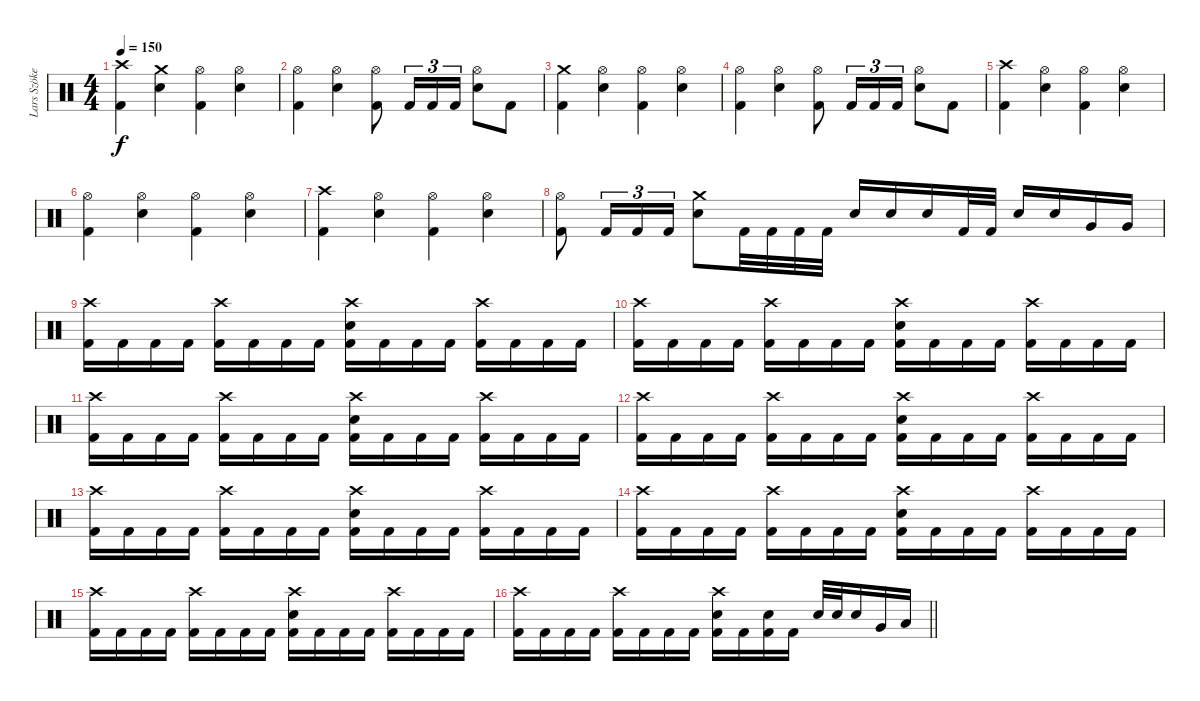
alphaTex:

\track ("Lars Szöke" "Lars Szöke") {instrument percussion}
\staff {score}
\articulation defaults
\ts (4 4)
\tempo 150
\clef neutral
\ks c
("Crash high (hit)" "Kick (hit) 2").4{dy f} ("Crash medium (hit)" "Snare (hit) 2").4 ("Hi-Hat (open)" "Kick (hit) 2").4 ("Hi-Hat (open)" "Snare (hit) 2").4 |
("Hi-Hat (open)" "Kick (hit) 2").4 ("Hi-Hat (open)" "Snare (hit) 2").4 ("Hi-Hat (open)" "Kick (hit) 2").8 "Kick (hit) 2".16{tu (3 2)} "Kick (hit) 2".16{tu (3 2)} "Kick (hit) 2".16{tu (3 2)} ("Hi-Hat (open)" "Snare (hit) 2").8 "Kick (hit) 2".8 |
("Crash medium (hit)" "Kick (hit) 2").4 ("Hi-Hat (open)" "Snare (hit) 2").4 ("Hi-Hat (open)" "Kick (hit) 2").4 ("Hi-Hat (open)" "Snare (hit) 2").4 |
("Hi-Hat (open)" "Kick (hit) 2").4 ("Hi-Hat (open)" "Snare (hit) 2").4 ("Hi-Hat (open)" "Kick (hit) 2").8 "Kick (hit) 2".16{tu (3 2)} "Kick (hit) 2".16{tu (3 2)} "Kick (hit) 2".16{tu (3 2)} ("Hi-Hat (open)" "Snare (hit) 2").8 "Kick (hit) 2".8 |
("Crash high (hit)" "Kick (hit) 2").4 ("Hi-Hat (open)" "Snare (hit) 2").4 ("Hi-Hat (open)" "Kick (hit) 2").4 ("Hi-Hat (open)" "Snare (hit) 2").4 |
("Hi-Hat (open)" "Kick (hit) 2").4 ("Hi-Hat (open)" "Snare (hit) 2").4 ("Hi-Hat (open)" "Kick (hit) 2").4 ("Hi-Hat (open)" "Snare (hit) 2").4 |
("Crash high (hit)" "Kick (hit) 2").4 ("Hi-Hat (open)" "Snare (hit) 2").4 ("Hi-Hat (open)" "Kick (hit) 2").4 ("Hi-Hat (open)" "Snare (hit) 2").4 |
("Hi-Hat (open)" "Kick (hit) 2").8 "Kick (hit) 2".16{tu (3 2)} "Kick (hit) 2".16{tu (3 2)} "Kick (hit) 2".16{tu (3 2)} ("Crash medium (hit)" "Snare (hit) 2").8 "Kick (hit) 2".32 "Kick (hit) 2".32 "Kick (hit) 2".32 "Kick (hit) 2".32 "Snare (hit) 2".16 "Snare (hit) 2".16 "Snare (hit) 2".16 "Kick (hit) 2".32 "Kick (hit) 2".32 "Snare (hit) 2".16 "Snare (hit) 2".16 "Very Low Tom (hit)".16 "Very Low Tom (hit)".16 |
("Crash high (hit)" "Kick (hit) 2").16 "Kick (hit) 2".16 "Kick (hit) 2".16 "Kick (hit) 2".16 ("Crash high (hit)" "Kick (hit) 2").16 "Kick (hit) 2".16 "Kick (hit) 2".16 "Kick (hit) 2".16 ("Crash high (hit)" "Snare (hit) 2" "Kick (hit) 2").16 "Kick (hit) 2".16 "Kick (hit) 2".16 "Kick (hit) 2".16 ("Crash high (hit)" "Kick (hit) 2").16 "Kick (hit) 2".16 "Kick (hit) 2".16 "Kick (hit) 2".16 |
("Crash high (hit)" "Kick (hit) 2").16 "Kick (hit) 2".16 "Kick (hit) 2".16 "Kick (hit) 2".16 ("Crash high (hit)" "Kick (hit) 2").16 "Kick (hit) 2".16 "Kick (hit) 2".16 "Kick (hit) 2".16 ("Crash high (hit)" "Snare (hit) 2" "Kick (hit) 2").16 "Kick (hit) 2".16 "Kick (hit) 2".16 "Kick (hit) 2".16 ("Crash high (hit)" "Kick (hit) 2").16 "Kick (hit) 2".16 "Kick (hit) 2".16 "Kick (hit) 2".16 |
("Crash high (hit)" "Kick (hit) 2").16 "Kick (hit) 2".16 "Kick (hit) 2".16 "Kick (hit) 2".16 ("Crash high (hit)" "Kick (hit) 2").16 "Kick (hit) 2".16 "Kick (hit) 2".16 "Kick (hit) 2".16 ("Crash high (hit)" "Snare (hit) 2" "Kick (hit) 2").16 "Kick (hit) 2".16 "Kick (hit) 2".16 "Kick (hit) 2".16 ("Crash high (hit)" "Kick (hit) 2").16 "Kick (hit) 2".16 "Kick (hit) 2".16 "Kick (hit) 2".16 |
("Crash high (hit)" "Kick (hit) 2").16 "Kick (hit) 2".16 "Kick (hit) 2".16 "Kick (hit) 2".16 ("Crash high (hit)" "Kick (hit) 2").16 "Kick (hit) 2".16 "Kick (hit) 2".16 "Kick (hit) 2".16 ("Crash high (hit)" "Snare (hit) 2" "Kick (hit) 2").16 "Kick (hit) 2".16 "Kick (hit) 2".16 "Kick (hit) 2".16 ("Crash high (hit)" "Kick (hit) 2").16 "Kick (hit) 2".16 "Kick (hit) 2".16 "Kick (hit) 2".16 |
("Crash high (hit)" "Kick (hit) 2").16 "Kick (hit) 2".16 "Kick (hit) 2".16 "Kick (hit) 2".16 ("Crash high (hit)" "Kick (hit) 2").16 "Kick (hit) 2".16 "Kick (hit) 2".16 "Kick (hit) 2".16 ("Crash high (hit)" "Snare (hit) 2" "Kick (hit) 2").16 "Kick (hit) 2".16 "Kick (hit) 2".16 "Kick (hit) 2".16 ("Crash high (hit)" "Kick (hit) 2").16 "Kick (hit) 2".16 "Kick (hit) 2".16 "Kick (hit) 2".16 |
("Crash high (hit)" "Kick (hit) 2").16 "Kick (hit) 2".16 "Kick (hit) 2".16 "Kick (hit) 2".16 ("Crash high (hit)" "Kick (hit) 2").16 "Kick (hit) 2".16 "Kick (hit) 2".16 "Kick (hit) 2".16 ("Crash high (hit)" "Snare (hit) 2" "Kick (hit) 2").16 "Kick (hit) 2".16 "Kick (hit) 2".16 "Kick (hit) 2".16 ("Crash high (hit)" "Kick (hit) 2").16 "Kick (hit) 2".16 "Kick (hit) 2".16 "Kick (hit) 2".16 |
("Crash high (hit)" "Kick (hit) 2").16 "Kick (hit) 2".16 "Kick (hit) 2".16 "Kick (hit) 2".16 ("Crash high (hit)" "Kick (hit) 2").16 "Kick (hit) 2".16 "Kick (hit) 2".16 "Kick (hit) 2".16 ("Crash high (hit)" "Snare (hit) 2" "Kick (hit) 2").16 "Kick (hit) 2".16 "Kick (hit) 2".16 "Kick (hit) 2".16 ("Crash high (hit)" "Kick (hit) 2").16 "Kick (hit) 2".16 "Kick (hit) 2".16 "Kick (hit) 2".16 |
\barLineRight lightlight
("Crash high (hit)" "Kick (hit) 2").16 "Kick (hit) 2".16 "Kick (hit) 2".16 "Kick (hit) 2".16 ("Crash high (hit)" "Kick (hit) 2").16 "Kick (hit) 2".16 "Kick (hit) 2".16 "Kick (hit) 2".16 ("Crash high (hit)" "Snare (hit) 2" "Kick (hit) 2").16 "Kick (hit) 2".16 ("Snare (hit) 2" "Kick (hit) 2").16 "Kick (hit) 2".16 "Snare (hit) 2".32 "Snare (hit) 2".32 "Snare (hit) 2".16 "Very Low Tom (hit)".16 "Low Floor Tom (hit)".16
